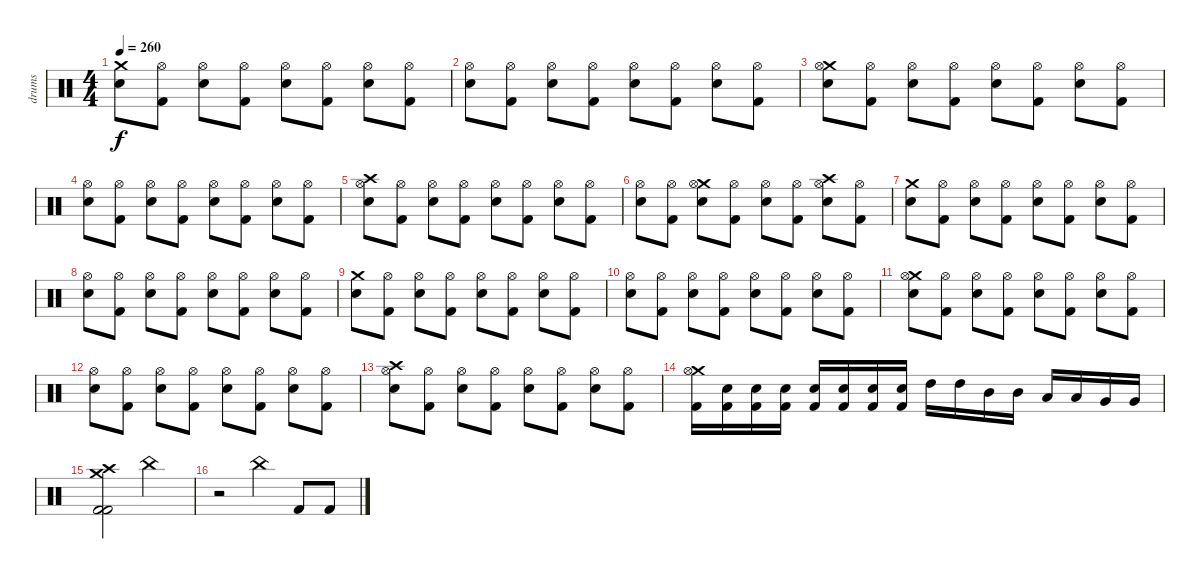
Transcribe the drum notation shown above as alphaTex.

\track ("drums" "drums") {instrument percussion}
\staff {score}
\articulation defaults
\ts (4 4)
\tempo 260
\clef neutral
\ks c
("Crash medium (hit)" "Electric Snare (hit)").8{dy f} ("Hi-Hat (open)" "Kick (hit) 2").8 ("Hi-Hat (open)" "Electric Snare (hit)").8 ("Hi-Hat (open)" "Kick (hit) 2").8 ("Hi-Hat (open)" "Electric Snare (hit)").8 ("Hi-Hat (open)" "Kick (hit) 2").8 ("Hi-Hat (open)" "Electric Snare (hit)").8 ("Hi-Hat (open)" "Kick (hit) 2").8 |
("Hi-Hat (open)" "Electric Snare (hit)").8 ("Hi-Hat (open)" "Kick (hit) 2").8 ("Hi-Hat (open)" "Electric Snare (hit)").8 ("Hi-Hat (open)" "Kick (hit) 2").8 ("Hi-Hat (open)" "Electric Snare (hit)").8 ("Hi-Hat (open)" "Kick (hit) 2").8 ("Hi-Hat (open)" "Electric Snare (hit)").8 ("Hi-Hat (open)" "Kick (hit) 2").8 |
("Crash medium (hit)" "Hi-Hat (open)" "Electric Snare (hit)").8 ("Hi-Hat (open)" "Kick (hit) 2").8 ("Hi-Hat (open)" "Electric Snare (hit)").8 ("Hi-Hat (open)" "Kick (hit) 2").8 ("Hi-Hat (open)" "Electric Snare (hit)").8 ("Hi-Hat (open)" "Kick (hit) 2").8 ("Hi-Hat (open)" "Electric Snare (hit)").8 ("Hi-Hat (open)" "Kick (hit) 2").8 |
("Hi-Hat (open)" "Electric Snare (hit)").8 ("Hi-Hat (open)" "Kick (hit) 2").8 ("Hi-Hat (open)" "Electric Snare (hit)").8 ("Hi-Hat (open)" "Kick (hit) 2").8 ("Hi-Hat (open)" "Electric Snare (hit)").8 ("Hi-Hat (open)" "Kick (hit) 2").8 ("Hi-Hat (open)" "Electric Snare (hit)").8 ("Hi-Hat (open)" "Kick (hit) 2").8 |
("Crash high (hit)" "Hi-Hat (open)" "Electric Snare (hit)").8 ("Hi-Hat (open)" "Kick (hit) 2").8 ("Hi-Hat (open)" "Electric Snare (hit)").8 ("Hi-Hat (open)" "Kick (hit) 2").8 ("Hi-Hat (open)" "Electric Snare (hit)").8 ("Hi-Hat (open)" "Kick (hit) 2").8 ("Hi-Hat (open)" "Electric Snare (hit)").8 ("Hi-Hat (open)" "Kick (hit) 2").8 |
("Hi-Hat (open)" "Electric Snare (hit)").8 ("Hi-Hat (open)" "Kick (hit) 2").8 ("Crash medium (hit)" "Hi-Hat (open)" "Electric Snare (hit)").8 ("Hi-Hat (open)" "Kick (hit) 2").8 ("Hi-Hat (open)" "Electric Snare (hit)").8 ("Hi-Hat (open)" "Kick (hit) 2").8 ("Crash high (hit)" "Hi-Hat (open)" "Electric Snare (hit)").8 ("Hi-Hat (open)" "Kick (hit) 2").8 |
("Crash medium (hit)" "Electric Snare (hit)").8 ("Hi-Hat (open)" "Kick (hit) 2").8 ("Hi-Hat (open)" "Electric Snare (hit)").8 ("Hi-Hat (open)" "Kick (hit) 2").8 ("Hi-Hat (open)" "Electric Snare (hit)").8 ("Hi-Hat (open)" "Kick (hit) 2").8 ("Hi-Hat (open)" "Electric Snare (hit)").8 ("Hi-Hat (open)" "Kick (hit) 2").8 |
("Hi-Hat (open)" "Electric Snare (hit)").8 ("Hi-Hat (open)" "Kick (hit) 2").8 ("Hi-Hat (open)" "Electric Snare (hit)").8 ("Hi-Hat (open)" "Kick (hit) 2").8 ("Hi-Hat (open)" "Electric Snare (hit)").8 ("Hi-Hat (open)" "Kick (hit) 2").8 ("Hi-Hat (open)" "Electric Snare (hit)").8 ("Hi-Hat (open)" "Kick (hit) 2").8 |
("Crash medium (hit)" "Electric Snare (hit)").8 ("Hi-Hat (open)" "Kick (hit) 2").8 ("Hi-Hat (open)" "Electric Snare (hit)").8 ("Hi-Hat (open)" "Kick (hit) 2").8 ("Hi-Hat (open)" "Electric Snare (hit)").8 ("Hi-Hat (open)" "Kick (hit) 2").8 ("Hi-Hat (open)" "Electric Snare (hit)").8 ("Hi-Hat (open)" "Kick (hit) 2").8 |
("Hi-Hat (open)" "Electric Snare (hit)").8 ("Hi-Hat (open)" "Kick (hit) 2").8 ("Hi-Hat (open)" "Electric Snare (hit)").8 ("Hi-Hat (open)" "Kick (hit) 2").8 ("Hi-Hat (open)" "Electric Snare (hit)").8 ("Hi-Hat (open)" "Kick (hit) 2").8 ("Hi-Hat (open)" "Electric Snare (hit)").8 ("Hi-Hat (open)" "Kick (hit) 2").8 |
("Crash medium (hit)" "Hi-Hat (open)" "Electric Snare (hit)").8 ("Hi-Hat (open)" "Kick (hit) 2").8 ("Hi-Hat (open)" "Electric Snare (hit)").8 ("Hi-Hat (open)" "Kick (hit) 2").8 ("Hi-Hat (open)" "Electric Snare (hit)").8 ("Hi-Hat (open)" "Kick (hit) 2").8 ("Hi-Hat (open)" "Electric Snare (hit)").8 ("Hi-Hat (open)" "Kick (hit) 2").8 |
("Hi-Hat (open)" "Electric Snare (hit)").8 ("Hi-Hat (open)" "Kick (hit) 2").8 ("Hi-Hat (open)" "Electric Snare (hit)").8 ("Hi-Hat (open)" "Kick (hit) 2").8 ("Hi-Hat (open)" "Electric Snare (hit)").8 ("Hi-Hat (open)" "Kick (hit) 2").8 ("Hi-Hat (open)" "Electric Snare (hit)").8 ("Hi-Hat (open)" "Kick (hit) 2").8 |
("Crash high (hit)" "Hi-Hat (open)" "Electric Snare (hit)").8 ("Hi-Hat (open)" "Kick (hit) 2").8 ("Hi-Hat (open)" "Electric Snare (hit)").8 ("Hi-Hat (open)" "Kick (hit) 2").8 ("Hi-Hat (open)" "Electric Snare (hit)").8 ("Hi-Hat (open)" "Kick (hit) 2").8 ("Hi-Hat (open)" "Electric Snare (hit)").8 ("Hi-Hat (open)" "Kick (hit) 2").8 |
("Crash medium (hit)" "Hi-Hat (open)" "Kick (hit) 2").16 ("Electric Snare (hit)" "Kick (hit) 2").16 ("Electric Snare (hit)" "Kick (hit) 2").16 ("Electric Snare (hit)" "Kick (hit) 2").16 ("Electric Snare (hit)" "Kick (hit) 2").16 ("Electric Snare (hit)" "Kick (hit) 2").16 ("Electric Snare (hit)" "Kick (hit) 2").16 ("Electric Snare (hit)" "Kick (hit) 2").16 "High Tom (hit)".16 "High Tom (hit)".16 "Mid Tom (hit)".16 "Mid Tom (hit)".16 "Low Tom (hit)".16 "Low Tom (hit)".16 "Very Low Tom (hit)".16 "Very Low Tom (hit)".16 |
("Crash medium (hit)" "Crash high (hit)" "Kick (hit) 2" "Kick (hit) 2").2 "China (hit)".2 |
r.2 "China (hit)".4 "Kick (hit) 2".8 "Kick (hit) 2".8
